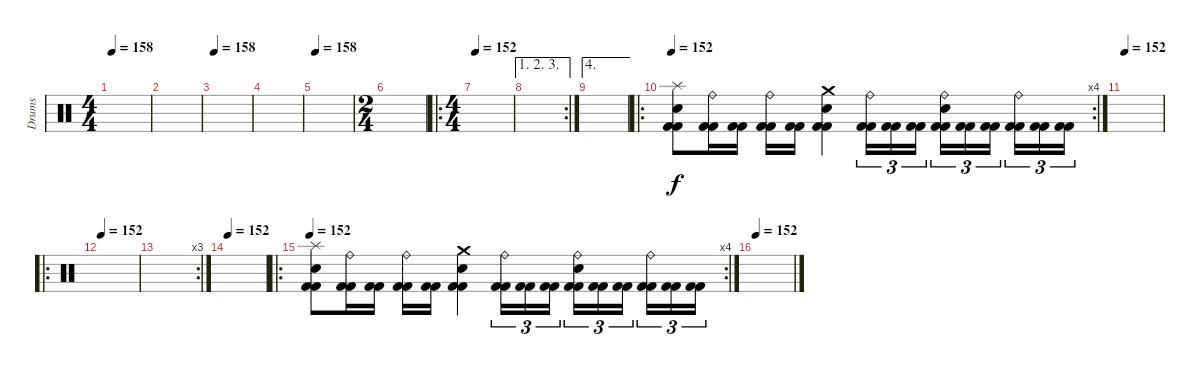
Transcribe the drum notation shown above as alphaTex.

\track ("Drums" "Drums") {instrument percussion}
\staff {score}
\articulation defaults
\ts (4 4)
\tempo 158
\clef neutral
\ks c
|
|
\tempo 158
|
|
\tempo 158
|
\ts (2 4)
|
\ro
\ts (4 4)
\tempo 152
|
\ae (1 2 3)
\rc 2
|
\ae 4
|
\ro
\rc 4
\tempo 152
("Splash (hit)" "Electric Snare (hit)" "Kick (hit) 2" "Kick (hit) 2").8 ("Ride (bell)" "Kick (hit) 2" "Kick (hit) 2").16 ("Kick (hit) 2" "Kick (hit) 2").16 ("Ride (bell)" "Kick (hit) 2" "Kick (hit) 2").16 ("Kick (hit) 2" "Kick (hit) 2").16 ("Crash medium (hit)" "Electric Snare (hit)" "Kick (hit) 2" "Kick (hit) 2").4 ("Ride (bell)" "Kick (hit) 2" "Kick (hit) 2").16{tu (3 2)} ("Kick (hit) 2" "Kick (hit) 2").16{tu (3 2)} ("Kick (hit) 2" "Kick (hit) 2").16{tu (3 2)} ("Electric Snare (hit)" "Ride (bell)" "Kick (hit) 2" "Kick (hit) 2").16{tu (3 2)} ("Kick (hit) 2" "Kick (hit) 2").16{tu (3 2)} ("Kick (hit) 2" "Kick (hit) 2").16{tu (3 2)} ("Ride (bell)" "Kick (hit) 2" "Kick (hit) 2").16{tu (3 2)} ("Kick (hit) 2" "Kick (hit) 2").16{tu (3 2)} ("Kick (hit) 2" "Kick (hit) 2").16{tu (3 2)} |
\tempo 152
|
\ro
\tempo 152
|
\rc 3
|
\tempo 152
|
\ro
\rc 4
\tempo 152
("Splash (hit)" "Electric Snare (hit)" "Kick (hit) 2" "Kick (hit) 2").8 ("Ride (bell)" "Kick (hit) 2" "Kick (hit) 2").16 ("Kick (hit) 2" "Kick (hit) 2").16 ("Ride (bell)" "Kick (hit) 2" "Kick (hit) 2").16 ("Kick (hit) 2" "Kick (hit) 2").16 ("Crash medium (hit)" "Electric Snare (hit)" "Kick (hit) 2" "Kick (hit) 2").4 ("Ride (bell)" "Kick (hit) 2" "Kick (hit) 2").16{tu (3 2)} ("Kick (hit) 2" "Kick (hit) 2").16{tu (3 2)} ("Kick (hit) 2" "Kick (hit) 2").16{tu (3 2)} ("Electric Snare (hit)" "Ride (bell)" "Kick (hit) 2" "Kick (hit) 2").16{tu (3 2)} ("Kick (hit) 2" "Kick (hit) 2").16{tu (3 2)} ("Kick (hit) 2" "Kick (hit) 2").16{tu (3 2)} ("Ride (bell)" "Kick (hit) 2" "Kick (hit) 2").16{tu (3 2)} ("Kick (hit) 2" "Kick (hit) 2").16{tu (3 2)} ("Kick (hit) 2" "Kick (hit) 2").16{tu (3 2)} |
\tempo 152
